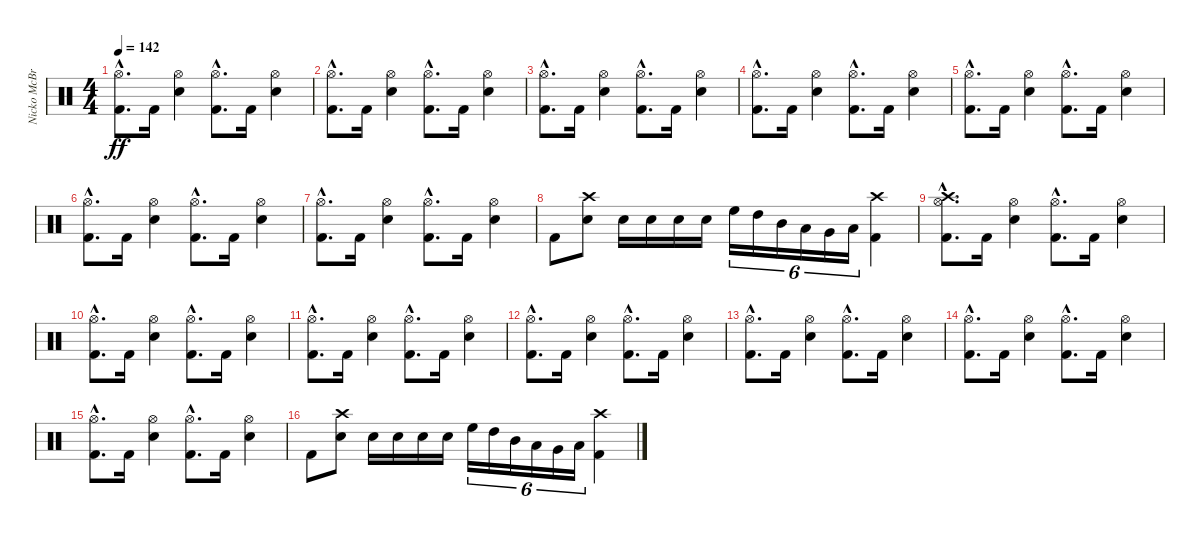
\track ("Nicko McBrain" "Nicko McBr") {instrument percussion}
\staff {score}
\articulation defaults
\ts (4 4)
\tempo 142
\clef neutral
\ks c
("Kick (hit) 2"{hac} "Hi-Hat (open)"{hac}).8{d dy ff} "Kick (hit) 2".16 ("Snare (hit) 2" "Hi-Hat (open)").4 ("Kick (hit) 2"{hac} "Hi-Hat (open)"{hac}).8{d} "Kick (hit) 2".16 ("Snare (hit) 2" "Hi-Hat (open)").4 |
("Kick (hit) 2"{hac} "Hi-Hat (open)"{hac}).8{d} "Kick (hit) 2".16 ("Snare (hit) 2" "Hi-Hat (open)").4 ("Kick (hit) 2"{hac} "Hi-Hat (open)"{hac}).8{d} "Kick (hit) 2".16 ("Snare (hit) 2" "Hi-Hat (open)").4 |
("Kick (hit) 2"{hac} "Hi-Hat (open)"{hac}).8{d} "Kick (hit) 2".16 ("Snare (hit) 2" "Hi-Hat (open)").4 ("Kick (hit) 2"{hac} "Hi-Hat (open)"{hac}).8{d} "Kick (hit) 2".16 ("Snare (hit) 2" "Hi-Hat (open)").4 |
("Kick (hit) 2"{hac} "Hi-Hat (open)"{hac}).8{d} "Kick (hit) 2".16 ("Snare (hit) 2" "Hi-Hat (open)").4 ("Kick (hit) 2"{hac} "Hi-Hat (open)"{hac}).8{d} "Kick (hit) 2".16 ("Snare (hit) 2" "Hi-Hat (open)").4 |
("Kick (hit) 2"{hac} "Hi-Hat (open)"{hac}).8{d} "Kick (hit) 2".16 ("Snare (hit) 2" "Hi-Hat (open)").4 ("Kick (hit) 2"{hac} "Hi-Hat (open)"{hac}).8{d} "Kick (hit) 2".16 ("Snare (hit) 2" "Hi-Hat (open)").4 |
("Kick (hit) 2"{hac} "Hi-Hat (open)"{hac}).8{d} "Kick (hit) 2".16 ("Snare (hit) 2" "Hi-Hat (open)").4 ("Kick (hit) 2"{hac} "Hi-Hat (open)"{hac}).8{d} "Kick (hit) 2".16 ("Snare (hit) 2" "Hi-Hat (open)").4 |
("Kick (hit) 2"{hac} "Hi-Hat (open)"{hac}).8{d} "Kick (hit) 2".16 ("Snare (hit) 2" "Hi-Hat (open)").4 ("Kick (hit) 2"{hac} "Hi-Hat (open)"{hac}).8{d} "Kick (hit) 2".16 ("Snare (hit) 2" "Hi-Hat (open)").4 |
"Kick (hit) 2".8 ("Snare (hit) 2" "Crash high (hit)").8 "Snare (hit) 2".16 "Snare (hit) 2".16 "Snare (hit) 2".16 "Snare (hit) 2".16 "High Floor Tom (hit)".16{tu (6 4)} "High Tom (hit)".16{tu (6 4)} "Mid Tom (hit)".16{tu (6 4)} "Low Tom (hit)".16{tu (6 4)} "Very Low Tom (hit)".16{tu (6 4)} "Low Floor Tom (hit)".16{tu (6 4)} ("Kick (hit) 2" "Crash high (hit)").4 |
("Kick (hit) 2"{hac} "Hi-Hat (open)"{hac} "Crash high (hit)"{hac}).8{d} "Kick (hit) 2".16 ("Snare (hit) 2" "Hi-Hat (open)").4 ("Kick (hit) 2"{hac} "Hi-Hat (open)"{hac}).8{d} "Kick (hit) 2".16 ("Snare (hit) 2" "Hi-Hat (open)").4 |
("Kick (hit) 2"{hac} "Hi-Hat (open)"{hac}).8{d} "Kick (hit) 2".16 ("Snare (hit) 2" "Hi-Hat (open)").4 ("Kick (hit) 2"{hac} "Hi-Hat (open)"{hac}).8{d} "Kick (hit) 2".16 ("Snare (hit) 2" "Hi-Hat (open)").4 |
("Kick (hit) 2"{hac} "Hi-Hat (open)"{hac}).8{d} "Kick (hit) 2".16 ("Snare (hit) 2" "Hi-Hat (open)").4 ("Kick (hit) 2"{hac} "Hi-Hat (open)"{hac}).8{d} "Kick (hit) 2".16 ("Snare (hit) 2" "Hi-Hat (open)").4 |
("Kick (hit) 2"{hac} "Hi-Hat (open)"{hac}).8{d} "Kick (hit) 2".16 ("Snare (hit) 2" "Hi-Hat (open)").4 ("Kick (hit) 2"{hac} "Hi-Hat (open)"{hac}).8{d} "Kick (hit) 2".16 ("Snare (hit) 2" "Hi-Hat (open)").4 |
("Kick (hit) 2"{hac} "Hi-Hat (open)"{hac}).8{d} "Kick (hit) 2".16 ("Snare (hit) 2" "Hi-Hat (open)").4 ("Kick (hit) 2"{hac} "Hi-Hat (open)"{hac}).8{d} "Kick (hit) 2".16 ("Snare (hit) 2" "Hi-Hat (open)").4 |
("Kick (hit) 2"{hac} "Hi-Hat (open)"{hac}).8{d} "Kick (hit) 2".16 ("Snare (hit) 2" "Hi-Hat (open)").4 ("Kick (hit) 2"{hac} "Hi-Hat (open)"{hac}).8{d} "Kick (hit) 2".16 ("Snare (hit) 2" "Hi-Hat (open)").4 |
("Kick (hit) 2"{hac} "Hi-Hat (open)"{hac}).8{d} "Kick (hit) 2".16 ("Snare (hit) 2" "Hi-Hat (open)").4 ("Kick (hit) 2"{hac} "Hi-Hat (open)"{hac}).8{d} "Kick (hit) 2".16 ("Snare (hit) 2" "Hi-Hat (open)").4 |
"Kick (hit) 2".8 ("Snare (hit) 2" "Crash high (hit)").8 "Snare (hit) 2".16 "Snare (hit) 2".16 "Snare (hit) 2".16 "Snare (hit) 2".16 "High Floor Tom (hit)".16{tu (6 4)} "High Tom (hit)".16{tu (6 4)} "Mid Tom (hit)".16{tu (6 4)} "Low Tom (hit)".16{tu (6 4)} "Very Low Tom (hit)".16{tu (6 4)} "Low Floor Tom (hit)".16{tu (6 4)} ("Kick (hit) 2" "Crash high (hit)").4
